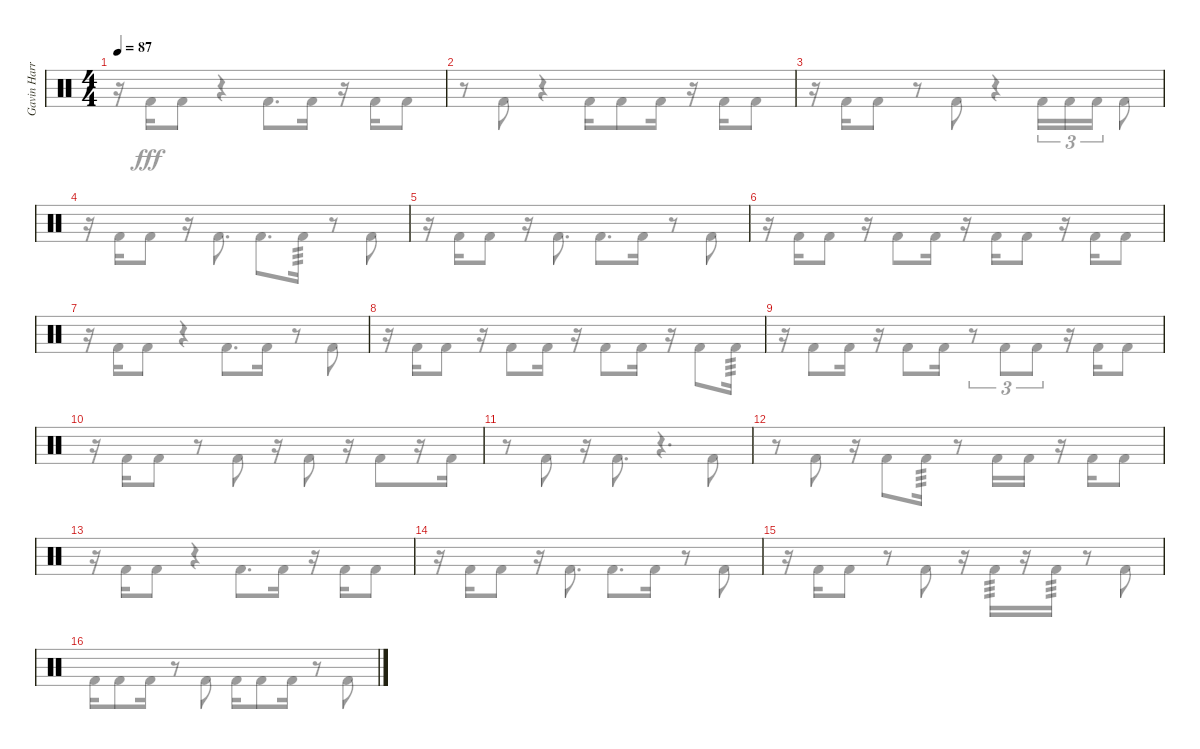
\track ("Gavin Harrison Bass Pedal" "Gavin Harr") {instrument percussion}
\staff {score}
\articulation defaults
\voice
\ts (4 4)
\tempo 87
\clef neutral
\ks aminor
|
|
|
|
|
|
|
|
|
|
|
|
|
|
|
\voice
\clef neutral
\ks aminor
r.16{dy fff} "Kick (hit) 2".16 "Kick (hit) 2".8 r.4 "Kick (hit) 2".8{d} "Kick (hit) 2".16 r.16 "Kick (hit) 2".16 "Kick (hit) 2".8 |
r.8 "Kick (hit) 2".8 r.4 "Kick (hit) 2".16 "Kick (hit) 2".8 "Kick (hit) 2".16 r.16 "Kick (hit) 2".16 "Kick (hit) 2".8 |
r.16 "Kick (hit) 2".16 "Kick (hit) 2".8 r.8 "Kick (hit) 2".8 r.4 "Kick (hit) 2".16{tu (3 2)} "Kick (hit) 2".16{tu (3 2)} "Kick (hit) 2".16{tu (3 2)} "Kick (hit) 2".8 |
r.16 "Kick (hit) 2".16 "Kick (hit) 2".8 r.16 "Kick (hit) 2".8{d} "Kick (hit) 2".8{d} "Kick (hit) 2".16{tp 3} r.8 "Kick (hit) 2".8 |
r.16 "Kick (hit) 2".16 "Kick (hit) 2".8 r.16 "Kick (hit) 2".8{d} "Kick (hit) 2".8{d} "Kick (hit) 2".16 r.8 "Kick (hit) 2".8 |
r.16 "Kick (hit) 2".16 "Kick (hit) 2".8 r.16 "Kick (hit) 2".8 "Kick (hit) 2".16 r.16 "Kick (hit) 2".16 "Kick (hit) 2".8 r.16 "Kick (hit) 2".16 "Kick (hit) 2".8 |
r.16 "Kick (hit) 2".16 "Kick (hit) 2".8 r.4 "Kick (hit) 2".8{d} "Kick (hit) 2".16 r.8 "Kick (hit) 2".8 |
r.16 "Kick (hit) 2".16 "Kick (hit) 2".8 r.16 "Kick (hit) 2".8 "Kick (hit) 2".16 r.16 "Kick (hit) 2".8 "Kick (hit) 2".16 r.16 "Kick (hit) 2".8 "Kick (hit) 2".16{tp 3} |
r.16 "Kick (hit) 2".8 "Kick (hit) 2".16 r.16 "Kick (hit) 2".8 "Kick (hit) 2".16 r.8{tu (3 2)} "Kick (hit) 2".8{tu (3 2)} "Kick (hit) 2".8{tu (3 2)} r.16 "Kick (hit) 2".16 "Kick (hit) 2".8 |
r.16 "Kick (hit) 2".16 "Kick (hit) 2".8 r.8 "Kick (hit) 2".8 r.16 "Kick (hit) 2".8 r.16 "Kick (hit) 2".8 r.16 "Kick (hit) 2".16 |
r.8 "Kick (hit) 2".8 r.16 "Kick (hit) 2".8{d} r.4{d} "Kick (hit) 2".8 |
r.8 "Kick (hit) 2".8 r.16 "Kick (hit) 2".8 "Kick (hit) 2".16{tp 3} r.8 "Kick (hit) 2".16 "Kick (hit) 2".16 r.16 "Kick (hit) 2".16 "Kick (hit) 2".8 |
r.16 "Kick (hit) 2".16 "Kick (hit) 2".8 r.4 "Kick (hit) 2".8{d} "Kick (hit) 2".16 r.16 "Kick (hit) 2".16 "Kick (hit) 2".8 |
r.16 "Kick (hit) 2".16 "Kick (hit) 2".8 r.16 "Kick (hit) 2".8{d} "Kick (hit) 2".8{d} "Kick (hit) 2".16 r.8 "Kick (hit) 2".8 |
r.16 "Kick (hit) 2".16 "Kick (hit) 2".8 r.8 "Kick (hit) 2".8 r.16 "Kick (hit) 2".16{tp 3} r.16 "Kick (hit) 2".16{tp 3} r.8 "Kick (hit) 2".8 |
"Kick (hit) 2".16 "Kick (hit) 2".8 "Kick (hit) 2".16 r.8 "Kick (hit) 2".8 "Kick (hit) 2".16 "Kick (hit) 2".8 "Kick (hit) 2".16 r.8 "Kick (hit) 2".8
